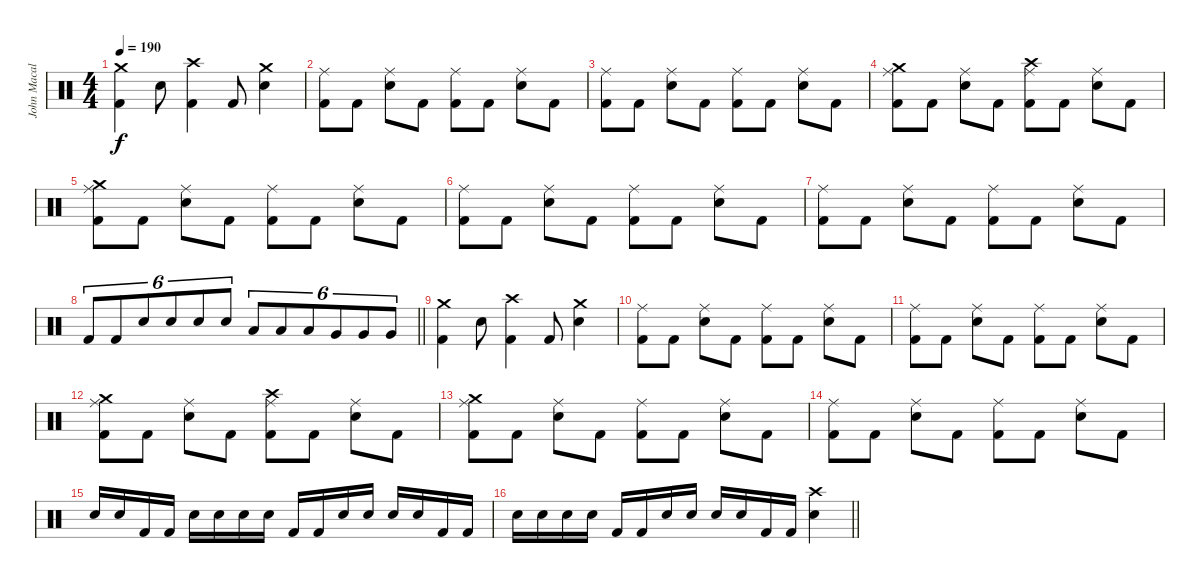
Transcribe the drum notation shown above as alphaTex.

\track ("John Macaluso" "John Macal") {instrument percussion}
\staff {score}
\articulation defaults
\ts (4 4)
\tempo 190
\clef neutral
\ks c
("Crash medium (hit)" "Kick (hit) 2").4{dy f} "Snare (hit) 2".8 ("Crash high (hit)" "Kick (hit) 2").4 "Kick (hit) 2".8 ("Crash medium (hit)" "Snare (hit) 2").4 |
("Ride (middle)" "Kick (hit) 2").8 "Kick (hit) 2".8 ("Ride (middle)" "Snare (hit) 2").8 "Kick (hit) 2".8 ("Ride (middle)" "Kick (hit) 2").8 "Kick (hit) 2".8 ("Ride (middle)" "Snare (hit) 2").8 "Kick (hit) 2".8 |
("Ride (middle)" "Kick (hit) 2").8 "Kick (hit) 2".8 ("Ride (middle)" "Snare (hit) 2").8 "Kick (hit) 2".8 ("Ride (middle)" "Kick (hit) 2").8 "Kick (hit) 2".8 ("Ride (middle)" "Snare (hit) 2").8 "Kick (hit) 2".8 |
("Crash medium (hit)" "Ride (middle)" "Kick (hit) 2").8 "Kick (hit) 2".8 ("Ride (middle)" "Snare (hit) 2").8 "Kick (hit) 2".8 ("Crash high (hit)" "Ride (middle)" "Kick (hit) 2").8 "Kick (hit) 2".8 ("Ride (middle)" "Snare (hit) 2").8 "Kick (hit) 2".8 |
("Crash medium (hit)" "Ride (middle)" "Kick (hit) 2").8 "Kick (hit) 2".8 ("Ride (middle)" "Snare (hit) 2").8 "Kick (hit) 2".8 ("Ride (middle)" "Kick (hit) 2").8 "Kick (hit) 2".8 ("Ride (middle)" "Snare (hit) 2").8 "Kick (hit) 2".8 |
("Ride (middle)" "Kick (hit) 2").8 "Kick (hit) 2".8 ("Ride (middle)" "Snare (hit) 2").8 "Kick (hit) 2".8 ("Ride (middle)" "Kick (hit) 2").8 "Kick (hit) 2".8 ("Ride (middle)" "Snare (hit) 2").8 "Kick (hit) 2".8 |
("Ride (middle)" "Kick (hit) 2").8 "Kick (hit) 2".8 ("Ride (middle)" "Snare (hit) 2").8 "Kick (hit) 2".8 ("Ride (middle)" "Kick (hit) 2").8 "Kick (hit) 2".8 ("Ride (middle)" "Snare (hit) 2").8 "Kick (hit) 2".8 |
\barLineRight lightlight "Kick (hit) 2".8{tu (6 4)} "Kick (hit) 2".8{tu (6 4)} "Snare (hit) 2".8{tu (6 4)} "Snare (hit) 2".8{tu (6 4)} "Snare (hit) 2".8{tu (6 4)} "Snare (hit) 2".8{tu (6 4)} "Low Tom (hit)".8{tu (6 4)} "Low Tom (hit)".8{tu (6 4)} "Low Tom (hit)".8{tu (6 4)} "Very Low Tom (hit)".8{tu (6 4)} "Very Low Tom (hit)".8{tu (6 4)} "Very Low Tom (hit)".8{tu (6 4)}
|
("Crash medium (hit)" "Kick (hit) 2").4 "Snare (hit) 2".8 ("Crash high (hit)" "Kick (hit) 2").4 "Kick (hit) 2".8 ("Crash medium (hit)" "Snare (hit) 2").4 |
("Ride (middle)" "Kick (hit) 2").8 "Kick (hit) 2".8 ("Ride (middle)" "Snare (hit) 2").8 "Kick (hit) 2".8 ("Ride (middle)" "Kick (hit) 2").8 "Kick (hit) 2".8 ("Ride (middle)" "Snare (hit) 2").8 "Kick (hit) 2".8 |
("Ride (middle)" "Kick (hit) 2").8 "Kick (hit) 2".8 ("Ride (middle)" "Snare (hit) 2").8 "Kick (hit) 2".8 ("Ride (middle)" "Kick (hit) 2").8 "Kick (hit) 2".8 ("Ride (middle)" "Snare (hit) 2").8 "Kick (hit) 2".8 |
("Crash medium (hit)" "Ride (middle)" "Kick (hit) 2").8 "Kick (hit) 2".8 ("Ride (middle)" "Snare (hit) 2").8 "Kick (hit) 2".8 ("Crash high (hit)" "Ride (middle)" "Kick (hit) 2").8 "Kick (hit) 2".8 ("Ride (middle)" "Snare (hit) 2").8 "Kick (hit) 2".8 |
("Crash medium (hit)" "Ride (middle)" "Kick (hit) 2").8 "Kick (hit) 2".8 ("Ride (middle)" "Snare (hit) 2").8 "Kick (hit) 2".8 ("Ride (middle)" "Kick (hit) 2").8 "Kick (hit) 2".8 ("Ride (middle)" "Snare (hit) 2").8 "Kick (hit) 2".8 |
("Ride (middle)" "Kick (hit) 2").8 "Kick (hit) 2".8 ("Ride (middle)" "Snare (hit) 2").8 "Kick (hit) 2".8 ("Ride (middle)" "Kick (hit) 2").8 "Kick (hit) 2".8 ("Ride (middle)" "Snare (hit) 2").8 "Kick (hit) 2".8 |
"Snare (hit) 2".16 "Snare (hit) 2".16 "Kick (hit) 2".16 "Kick (hit) 2".16 "Snare (hit) 2".16 "Snare (hit) 2".16 "Snare (hit) 2".16 "Snare (hit) 2".16 "Kick (hit) 2".16 "Kick (hit) 2".16 "Snare (hit) 2".16 "Snare (hit) 2".16 "Snare (hit) 2".16 "Snare (hit) 2".16 "Kick (hit) 2".16 "Kick (hit) 2".16 |
\barLineRight lightlight "Snare (hit) 2".16 "Snare (hit) 2".16 "Snare (hit) 2".16 "Snare (hit) 2".16 "Kick (hit) 2".16 "Kick (hit) 2".16 "Snare (hit) 2".16 "Snare (hit) 2".16 "Snare (hit) 2".16 "Snare (hit) 2".16 "Kick (hit) 2".16 "Kick (hit) 2".16
("Crash high (hit)" "Snare (hit) 2").4
